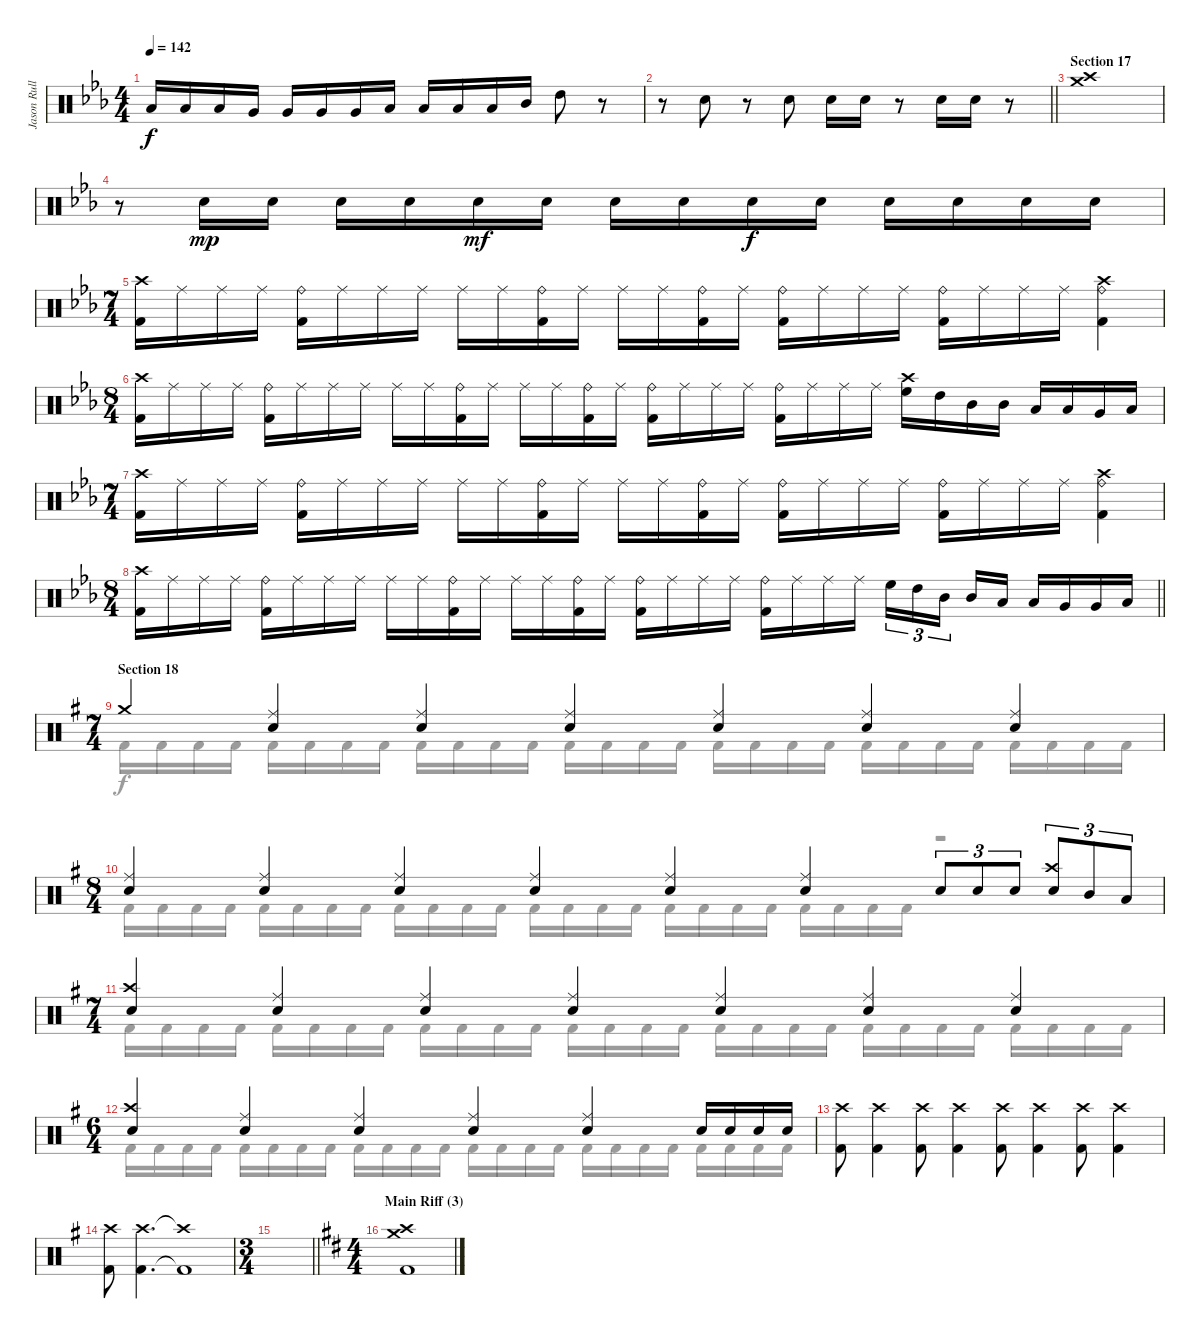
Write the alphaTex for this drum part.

\track ("Jason Rullo (drums)" "Jason Rull") {instrument percussion}
\staff {score}
\articulation defaults
\voice
\ts (4 4)
\tempo 142
\clef neutral
\ks cminor "Low Floor Tom (hit)".16{dy f} "Low Floor Tom (hit)".16 "Low Floor Tom (hit)".16 "Very Low Tom (hit)".16 "Very Low Tom (hit)".16 "Very Low Tom (hit)".16 "Very Low Tom (hit)".16 "Low Tom (hit)".16 "Low Tom (hit)".16 "Low Tom (hit)".16 "Low Tom (hit)".16 "Mid Tom (hit)".16 "High Tom (hit)".8
r.8 |
\barLineRight lightlight
r.8 "Electric Snare (hit)".8 r.8 "Electric Snare (hit)".8 "Electric Snare (hit)".16 "Electric Snare (hit)".16 r.8 "Electric Snare (hit)".16 "Electric Snare (hit)".16 r.8 |
\section ("" "Section 17")
("Crash high (hit)" "Crash medium (hit)").1 |
r.8 "Electric Snare (hit)".16{dy mp} "Electric Snare (hit)".16 "Electric Snare (hit)".16 "Electric Snare (hit)".16 "Electric Snare (hit)".16{dy mf} "Electric Snare (hit)".16 "Electric Snare (hit)".16 "Electric Snare (hit)".16 "Electric Snare (hit)".16{dy f} "Electric Snare (hit)".16 "Electric Snare (hit)".16 "Electric Snare (hit)".16 "Electric Snare (hit)".16 "Electric Snare (hit)".16 |
\ts (7 4)
("Crash high (hit)" "Kick (hit) 2").16 "Ride (middle)".16 "Ride (middle)".16 "Ride (middle)".16 ("Ride (bell)" "Kick (hit) 2").16 "Ride (middle)".16 "Ride (middle)".16 "Ride (middle)".16 "Ride (middle)".16 "Ride (middle)".16 ("Ride (bell)" "Kick (hit) 2").16 "Ride (middle)".16 "Ride (middle)".16 "Ride (middle)".16 ("Ride (bell)" "Kick (hit) 2").16 "Ride (middle)".16 ("Ride (bell)" "Kick (hit) 2").16 "Ride (middle)".16 "Ride (middle)".16 "Ride (middle)".16 ("Ride (bell)" "Kick (hit) 2").16 "Ride (middle)".16 "Ride (middle)".16 "Ride (middle)".16 ("Ride (bell)" "Crash high (hit)" "Kick (hit) 2").4 |
\ts (8 4)
("Crash high (hit)" "Kick (hit) 2").16 "Ride (middle)".16 "Ride (middle)".16 "Ride (middle)".16 ("Ride (bell)" "Kick (hit) 2").16 "Ride (middle)".16 "Ride (middle)".16 "Ride (middle)".16 "Ride (middle)".16 "Ride (middle)".16 ("Ride (bell)" "Kick (hit) 2").16 "Ride (middle)".16 "Ride (middle)".16 "Ride (middle)".16 ("Ride (bell)" "Kick (hit) 2").16 "Ride (middle)".16 ("Ride (bell)" "Kick (hit) 2").16 "Ride (middle)".16 "Ride (middle)".16 "Ride (middle)".16 ("Ride (bell)" "Kick (hit) 2").16 "Ride (middle)".16 "Ride (middle)".16 "Ride (middle)".16 ("High Floor Tom (hit)" "Crash high (hit)").16 "High Tom (hit)".16 "Mid Tom (hit)".16 "Mid Tom (hit)".16 "Low Tom (hit)".16 "Low Tom (hit)".16 "Very Low Tom (hit)".16 "Low Floor Tom (hit)".16 |
\ts (7 4)
("Crash high (hit)" "Kick (hit) 2").16 "Ride (middle)".16 "Ride (middle)".16 "Ride (middle)".16 ("Ride (bell)" "Kick (hit) 2").16 "Ride (middle)".16 "Ride (middle)".16 "Ride (middle)".16 "Ride (middle)".16 "Ride (middle)".16 ("Ride (bell)" "Kick (hit) 2").16 "Ride (middle)".16 "Ride (middle)".16 "Ride (middle)".16 ("Ride (bell)" "Kick (hit) 2").16 "Ride (middle)".16 ("Ride (bell)" "Kick (hit) 2").16 "Ride (middle)".16 "Ride (middle)".16 "Ride (middle)".16 ("Ride (bell)" "Kick (hit) 2").16 "Ride (middle)".16 "Ride (middle)".16 "Ride (middle)".16 ("Ride (bell)" "Crash high (hit)" "Kick (hit) 2").4 |
\ts (8 4)
\barLineRight lightlight
("Crash high (hit)" "Kick (hit) 2").16 "Ride (middle)".16 "Ride (middle)".16 "Ride (middle)".16 ("Ride (bell)" "Kick (hit) 2").16 "Ride (middle)".16 "Ride (middle)".16 "Ride (middle)".16 "Ride (middle)".16 "Ride (middle)".16 ("Ride (bell)" "Kick (hit) 2").16 "Ride (middle)".16 "Ride (middle)".16 "Ride (middle)".16 ("Ride (bell)" "Kick (hit) 2").16 "Ride (middle)".16 ("Ride (bell)" "Kick (hit) 2").16 "Ride (middle)".16 "Ride (middle)".16 "Ride (middle)".16 ("Ride (bell)" "Kick (hit) 2").16 "Ride (middle)".16 "Ride (middle)".16 "Ride (middle)".16 "High Floor Tom (hit)".16{tu (3 2)} "High Tom (hit)".16{tu (3 2)} "Mid Tom (hit)".16{tu (3 2) beam splitsecondary} "Mid Tom (hit)".16 "Low Tom (hit)".16 "Low Tom (hit)".16 "Very Low Tom (hit)".16 "Very Low Tom (hit)".16 "Low Floor Tom (hit)".16 |
\ts (7 4)
\section ("" "Section 18")
\ks eminor "Crash medium (hit)".4
("Electric Snare (hit)" "Ride (middle)").4 ("Electric Snare (hit)" "Ride (middle)").4 ("Electric Snare (hit)" "Ride (middle)").4 ("Electric Snare (hit)" "Ride (middle)").4 ("Electric Snare (hit)" "Ride (middle)").4 ("Electric Snare (hit)" "Ride (middle)").4 |
\ts (8 4)
("Electric Snare (hit)" "Ride (middle)").4 ("Electric Snare (hit)" "Ride (middle)").4 ("Electric Snare (hit)" "Ride (middle)").4 ("Electric Snare (hit)" "Ride (middle)").4 ("Electric Snare (hit)" "Ride (middle)").4 ("Electric Snare (hit)" "Ride (middle)").4 "Electric Snare (hit)".8{tu (3 2)} "Electric Snare (hit)".8{tu (3 2)} "Electric Snare (hit)".8{tu (3 2)} ("Electric Snare (hit)" "Crash high (hit)").8{tu (3 2)} "Mid Tom (hit)".8{tu (3 2)} "Low Tom (hit)".8{tu (3 2)} |
\ts (7 4)
("Electric Snare (hit)" "Crash high (hit)").4 ("Electric Snare (hit)" "Ride (middle)").4 ("Electric Snare (hit)" "Ride (middle)").4 ("Electric Snare (hit)" "Ride (middle)").4 ("Electric Snare (hit)" "Ride (middle)").4 ("Electric Snare (hit)" "Ride (middle)").4 ("Electric Snare (hit)" "Ride (middle)").4 |
\ts (6 4)
("Electric Snare (hit)" "Crash high (hit)").4 ("Electric Snare (hit)" "Ride (middle)").4 ("Electric Snare (hit)" "Ride (middle)").4 ("Electric Snare (hit)" "Ride (middle)").4 ("Electric Snare (hit)" "Ride (middle)").4 "Electric Snare (hit)".16 "Electric Snare (hit)".16 "Electric Snare (hit)".16 "Electric Snare (hit)".16 |
("Crash high (hit)" "Kick (hit) 2").8 ("Crash high (hit)" "Kick (hit) 2").4 ("Crash high (hit)" "Kick (hit) 2").8 ("Crash high (hit)" "Kick (hit) 2").4 ("Crash high (hit)" "Kick (hit) 2").8 ("Crash high (hit)" "Kick (hit) 2").4 ("Crash high (hit)" "Kick (hit) 2").8 ("Crash high (hit)" "Kick (hit) 2").4 |
("Crash high (hit)" "Kick (hit) 2").8 ("Crash high (hit)" "Kick (hit) 2").4{d} ("Crash high (hit)"{t} "Kick (hit) 2"{t}).1 |
\ts (3 4)
\barLineRight lightlight
|
\ts (4 4)
\section ("" "Main Riff (3)")
\ks bminor
("Crash high (hit)" "Kick (hit) 2" "Crash medium (hit)").1
\voice
\clef neutral
\ottava regular
\simile none
\ks cminor
|
\barLineRight lightlight
|
|
|
|
|
|
\barLineRight lightlight
|
\ks eminor "Kick (hit) 2".16 "Kick (hit) 2".16 "Kick (hit) 2".16 "Kick (hit) 2".16 "Kick (hit) 2".16 "Kick (hit) 2".16 "Kick (hit) 2".16 "Kick (hit) 2".16 "Kick (hit) 2".16 "Kick (hit) 2".16 "Kick (hit) 2".16 "Kick (hit) 2".16 "Kick (hit) 2".16 "Kick (hit) 2".16 "Kick (hit) 2".16 "Kick (hit) 2".16 "Kick (hit) 2".16 "Kick (hit) 2".16 "Kick (hit) 2".16 "Kick (hit) 2".16 "Kick (hit) 2".16 "Kick (hit) 2".16 "Kick (hit) 2".16 "Kick (hit) 2".16 "Kick (hit) 2".16 "Kick (hit) 2".16 "Kick (hit) 2".16 "Kick (hit) 2".16
|
"Kick (hit) 2".16 "Kick (hit) 2".16 "Kick (hit) 2".16 "Kick (hit) 2".16 "Kick (hit) 2".16 "Kick (hit) 2".16 "Kick (hit) 2".16 "Kick (hit) 2".16 "Kick (hit) 2".16 "Kick (hit) 2".16 "Kick (hit) 2".16 "Kick (hit) 2".16 "Kick (hit) 2".16 "Kick (hit) 2".16 "Kick (hit) 2".16 "Kick (hit) 2".16 "Kick (hit) 2".16 "Kick (hit) 2".16 "Kick (hit) 2".16 "Kick (hit) 2".16 "Kick (hit) 2".16 "Kick (hit) 2".16 "Kick (hit) 2".16 "Kick (hit) 2".16 r.2 |
"Kick (hit) 2".16 "Kick (hit) 2".16 "Kick (hit) 2".16 "Kick (hit) 2".16 "Kick (hit) 2".16 "Kick (hit) 2".16 "Kick (hit) 2".16 "Kick (hit) 2".16 "Kick (hit) 2".16 "Kick (hit) 2".16 "Kick (hit) 2".16 "Kick (hit) 2".16 "Kick (hit) 2".16 "Kick (hit) 2".16 "Kick (hit) 2".16 "Kick (hit) 2".16 "Kick (hit) 2".16 "Kick (hit) 2".16 "Kick (hit) 2".16 "Kick (hit) 2".16 "Kick (hit) 2".16 "Kick (hit) 2".16 "Kick (hit) 2".16 "Kick (hit) 2".16 "Kick (hit) 2".16 "Kick (hit) 2".16 "Kick (hit) 2".16 "Kick (hit) 2".16 |
"Kick (hit) 2".16 "Kick (hit) 2".16 "Kick (hit) 2".16 "Kick (hit) 2".16 "Kick (hit) 2".16 "Kick (hit) 2".16 "Kick (hit) 2".16 "Kick (hit) 2".16 "Kick (hit) 2".16 "Kick (hit) 2".16 "Kick (hit) 2".16 "Kick (hit) 2".16 "Kick (hit) 2".16 "Kick (hit) 2".16 "Kick (hit) 2".16 "Kick (hit) 2".16 "Kick (hit) 2".16 "Kick (hit) 2".16 "Kick (hit) 2".16 "Kick (hit) 2".16 "Kick (hit) 2".16 "Kick (hit) 2".16 "Kick (hit) 2".16 "Kick (hit) 2".16 |
|
|
\barLineRight lightlight
|
\ks bminor
